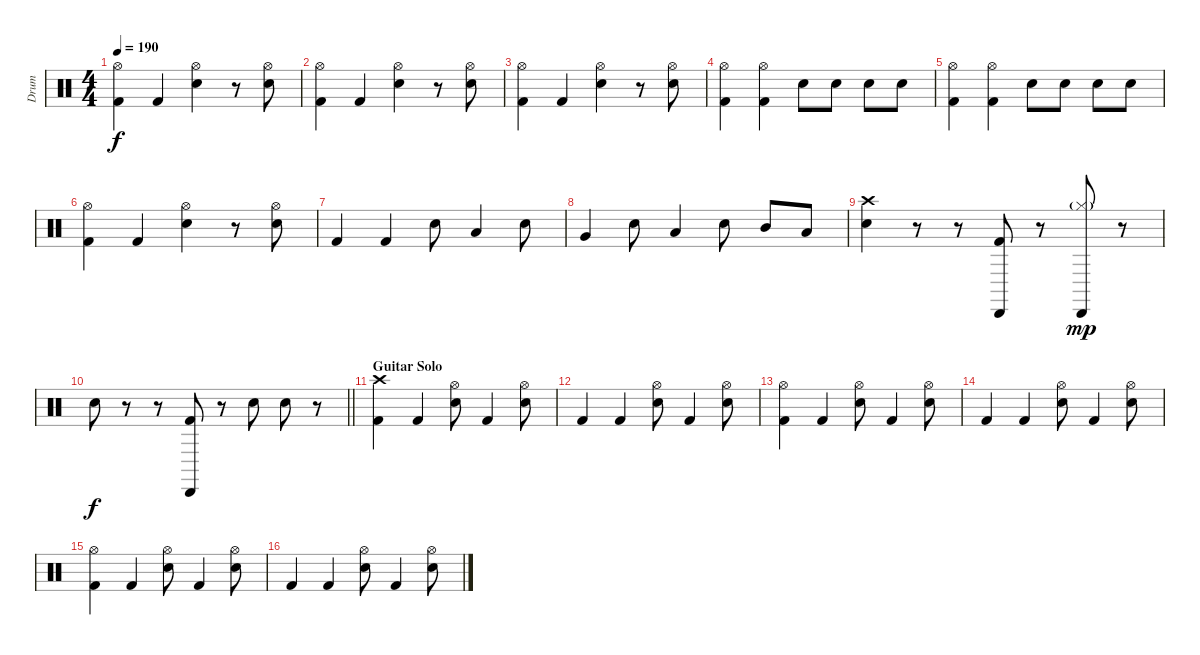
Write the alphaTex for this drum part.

\track ("Drum" "Drum") {instrument percussion}
\staff {score}
\articulation defaults
\ts (4 4)
\tempo 190
\clef neutral
\ks c
("Kick (hit) 2" "Hi-Hat (open)").4{dy f} "Kick (hit) 2".4 ("Snare (hit) 2" "Hi-Hat (open)").4 r.8 ("Snare (hit) 2" "Hi-Hat (open)").8 |
("Kick (hit) 2" "Hi-Hat (open)").4 "Kick (hit) 2".4 ("Snare (hit) 2" "Hi-Hat (open)").4 r.8 ("Snare (hit) 2" "Hi-Hat (open)").8 |
("Kick (hit) 2" "Hi-Hat (open)").4 "Kick (hit) 2".4 ("Snare (hit) 2" "Hi-Hat (open)").4 r.8 ("Snare (hit) 2" "Hi-Hat (open)").8 |
("Kick (hit) 2" "Hi-Hat (open)").4 ("Kick (hit) 2" "Hi-Hat (open)").4 "Snare (hit) 2".8 "Snare (hit) 2".8 "Snare (hit) 2".8 "Snare (hit) 2".8 |
("Kick (hit) 2" "Hi-Hat (open)").4 ("Kick (hit) 2" "Hi-Hat (open)").4 "Snare (hit) 2".8 "Snare (hit) 2".8 "Snare (hit) 2".8 "Snare (hit) 2".8 |
("Kick (hit) 2" "Hi-Hat (open)").4 "Kick (hit) 2".4 ("Snare (hit) 2" "Hi-Hat (open)").4 r.8 ("Snare (hit) 2" "Hi-Hat (open)").8 |
"Kick (hit) 2".4 "Kick (hit) 2".4 "Snare (hit) 2".8 "Low Tom (hit)".4 "Snare (hit) 2".8 |
"Very Low Tom (hit)".4 "Snare (hit) 2".8 "Low Floor Tom (hit)".4 "Snare (hit) 2".8 "Mid Tom (hit)".8 "Low Tom (hit)".8 |
("Snare (hit) 2" "Crash high (hit)").4 r.8 r.8 ("Kick (hit) 2" "Cabasa (hit)").8 r.8 ("Hi-Hat (closed)"{g} "Cabasa (hit)").8{dy mp} r.8 |
\barLineRight lightlight "Snare (hit) 2".8{dy f}
r.8 r.8 ("Kick (hit) 2" "Cabasa (hit)").8 r.8 "Snare (hit) 2".8 "Snare (hit) 2".8 r.8 |
\section ("" "Guitar Solo")
("Kick (hit) 2" "Crash high (hit)").4 "Kick (hit) 2".4 ("Snare (hit) 2" "Hi-Hat (open)").8 "Kick (hit) 2".4 ("Snare (hit) 2" "Hi-Hat (open)").8 |
"Kick (hit) 2".4 "Kick (hit) 2".4 ("Snare (hit) 2" "Hi-Hat (open)").8 "Kick (hit) 2".4 ("Snare (hit) 2" "Hi-Hat (open)").8 |
("Kick (hit) 2" "Hi-Hat (open)").4 "Kick (hit) 2".4 ("Snare (hit) 2" "Hi-Hat (open)").8 "Kick (hit) 2".4 ("Snare (hit) 2" "Hi-Hat (open)").8 |
"Kick (hit) 2".4 "Kick (hit) 2".4 ("Snare (hit) 2" "Hi-Hat (open)").8 "Kick (hit) 2".4 ("Snare (hit) 2" "Hi-Hat (open)").8 |
("Kick (hit) 2" "Hi-Hat (open)").4 "Kick (hit) 2".4 ("Snare (hit) 2" "Hi-Hat (open)").8 "Kick (hit) 2".4 ("Snare (hit) 2" "Hi-Hat (open)").8 |
"Kick (hit) 2".4 "Kick (hit) 2".4 ("Snare (hit) 2" "Hi-Hat (open)").8 "Kick (hit) 2".4 ("Snare (hit) 2" "Hi-Hat (open)").8
